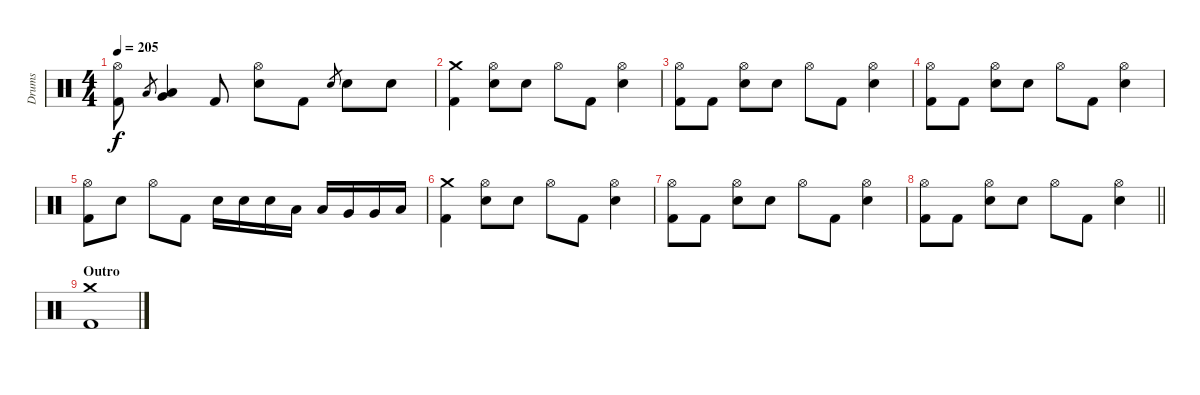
\track ("Drums" "Drums") {instrument percussion}
\staff {score}
\articulation defaults
\ts (4 4)
\tempo 205
\clef neutral
\ks c
("Hi-Hat (open)" "Kick (hit) 2").8{dy f} "Low Tom (hit)".8{gr} ("Very Low Tom (hit)" "Low Tom (hit)").4 "Kick (hit) 2".8 ("Hi-Hat (open)" "Electric Snare (hit)").8 "Kick (hit) 2".8 "Electric Snare (hit)".8{gr} "Electric Snare (hit)".8 "Electric Snare (hit)".8 |
("Crash medium (hit)" "Kick (hit) 2").4 ("Hi-Hat (open)" "Electric Snare (hit)").8 "Electric Snare (hit)".8 "Hi-Hat (open)".8 "Kick (hit) 2".8 ("Hi-Hat (open)" "Electric Snare (hit)").4 |
("Hi-Hat (open)" "Kick (hit) 2").8 "Kick (hit) 2".8 ("Hi-Hat (open)" "Electric Snare (hit)").8 "Electric Snare (hit)".8 "Hi-Hat (open)".8 "Kick (hit) 2".8 ("Hi-Hat (open)" "Electric Snare (hit)").4 |
("Hi-Hat (open)" "Kick (hit) 2").8 "Kick (hit) 2".8 ("Hi-Hat (open)" "Electric Snare (hit)").8 "Electric Snare (hit)".8 "Hi-Hat (open)".8 "Kick (hit) 2".8 ("Hi-Hat (open)" "Electric Snare (hit)").4 |
("Hi-Hat (open)" "Kick (hit) 2").8 "Electric Snare (hit)".8 "Hi-Hat (open)".8 "Kick (hit) 2".8 "Electric Snare (hit)".16 "Electric Snare (hit)".16 "Electric Snare (hit)".16 "Low Tom (hit)".16 "Low Tom (hit)".16 "Very Low Tom (hit)".16 "Very Low Tom (hit)".16 "Low Floor Tom (hit)".16 |
("Crash medium (hit)" "Kick (hit) 2").4 ("Hi-Hat (open)" "Electric Snare (hit)").8 "Electric Snare (hit)".8 "Hi-Hat (open)".8 "Kick (hit) 2".8 ("Hi-Hat (open)" "Electric Snare (hit)").4 |
("Hi-Hat (open)" "Kick (hit) 2").8 "Kick (hit) 2".8 ("Hi-Hat (open)" "Electric Snare (hit)").8 "Electric Snare (hit)".8 "Hi-Hat (open)".8 "Kick (hit) 2".8 ("Hi-Hat (open)" "Electric Snare (hit)").4 |
\barLineRight lightlight
("Hi-Hat (open)" "Kick (hit) 2").8 "Kick (hit) 2".8 ("Hi-Hat (open)" "Electric Snare (hit)").8 "Electric Snare (hit)".8 "Hi-Hat (open)".8 "Kick (hit) 2".8 ("Hi-Hat (open)" "Electric Snare (hit)").4 |
\section ("" "Outro")
("Crash medium (hit)" "Kick (hit) 2").1
